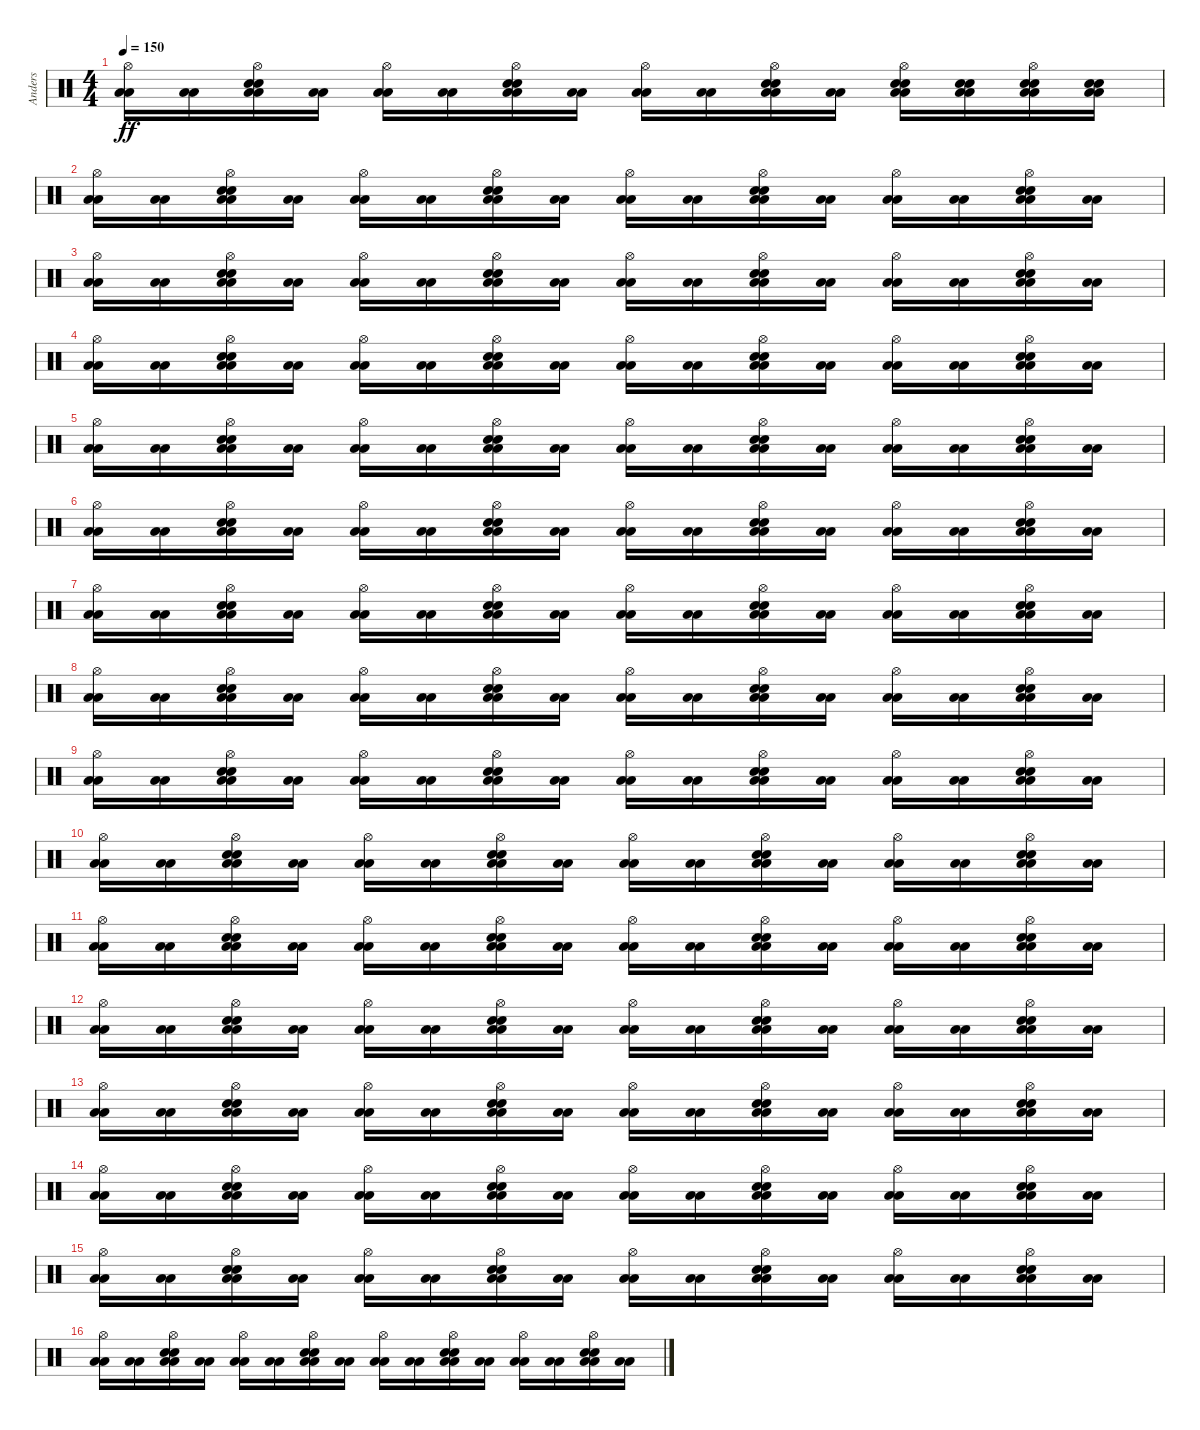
\track ("Anders" "Anders") {instrument percussion}
\staff {score}
\articulation defaults
\ts (4 4)
\tempo 150
\clef neutral
\ks c
("Hi-Hat (open)" "Low Floor Tom (hit)" "Low Floor Tom (hit)").16{dy ff} ("Low Floor Tom (hit)" "Low Floor Tom (hit)").16 ("Hi-Hat (open)" "Electric Snare (hit)" "Electric Snare (hit)" "Low Floor Tom (hit)" "Low Floor Tom (hit)").16 ("Low Floor Tom (hit)" "Low Floor Tom (hit)").16 ("Hi-Hat (open)" "Low Floor Tom (hit)" "Low Floor Tom (hit)").16 ("Low Floor Tom (hit)" "Low Floor Tom (hit)").16 ("Hi-Hat (open)" "Electric Snare (hit)" "Electric Snare (hit)" "Low Floor Tom (hit)" "Low Floor Tom (hit)").16 ("Low Floor Tom (hit)" "Low Floor Tom (hit)").16 ("Hi-Hat (open)" "Low Floor Tom (hit)" "Low Floor Tom (hit)").16 ("Low Floor Tom (hit)" "Low Floor Tom (hit)").16 ("Hi-Hat (open)" "Electric Snare (hit)" "Electric Snare (hit)" "Low Floor Tom (hit)" "Low Floor Tom (hit)").16 ("Low Floor Tom (hit)" "Low Floor Tom (hit)").16 ("Hi-Hat (open)" "Electric Snare (hit)" "Electric Snare (hit)" "Low Floor Tom (hit)" "Low Floor Tom (hit)").16 ("Electric Snare (hit)" "Electric Snare (hit)" "Low Floor Tom (hit)" "Low Floor Tom (hit)").16 ("Hi-Hat (open)" "Electric Snare (hit)" "Electric Snare (hit)" "Low Floor Tom (hit)" "Low Floor Tom (hit)").16 ("Electric Snare (hit)" "Electric Snare (hit)" "Low Floor Tom (hit)" "Low Floor Tom (hit)").16 |
("Hi-Hat (open)" "Low Floor Tom (hit)" "Low Floor Tom (hit)").16 ("Low Floor Tom (hit)" "Low Floor Tom (hit)").16 ("Hi-Hat (open)" "Electric Snare (hit)" "Electric Snare (hit)" "Low Floor Tom (hit)" "Low Floor Tom (hit)").16 ("Low Floor Tom (hit)" "Low Floor Tom (hit)").16 ("Hi-Hat (open)" "Low Floor Tom (hit)" "Low Floor Tom (hit)").16 ("Low Floor Tom (hit)" "Low Floor Tom (hit)").16 ("Hi-Hat (open)" "Electric Snare (hit)" "Electric Snare (hit)" "Low Floor Tom (hit)" "Low Floor Tom (hit)").16 ("Low Floor Tom (hit)" "Low Floor Tom (hit)").16 ("Hi-Hat (open)" "Low Floor Tom (hit)" "Low Floor Tom (hit)").16 ("Low Floor Tom (hit)" "Low Floor Tom (hit)").16 ("Hi-Hat (open)" "Electric Snare (hit)" "Electric Snare (hit)" "Low Floor Tom (hit)" "Low Floor Tom (hit)").16 ("Low Floor Tom (hit)" "Low Floor Tom (hit)").16 ("Hi-Hat (open)" "Low Floor Tom (hit)" "Low Floor Tom (hit)").16 ("Low Floor Tom (hit)" "Low Floor Tom (hit)").16 ("Hi-Hat (open)" "Electric Snare (hit)" "Electric Snare (hit)" "Low Floor Tom (hit)" "Low Floor Tom (hit)").16 ("Low Floor Tom (hit)" "Low Floor Tom (hit)").16 |
("Hi-Hat (open)" "Low Floor Tom (hit)" "Low Floor Tom (hit)").16 ("Low Floor Tom (hit)" "Low Floor Tom (hit)").16 ("Hi-Hat (open)" "Electric Snare (hit)" "Electric Snare (hit)" "Low Floor Tom (hit)" "Low Floor Tom (hit)").16 ("Low Floor Tom (hit)" "Low Floor Tom (hit)").16 ("Hi-Hat (open)" "Low Floor Tom (hit)" "Low Floor Tom (hit)").16 ("Low Floor Tom (hit)" "Low Floor Tom (hit)").16 ("Hi-Hat (open)" "Electric Snare (hit)" "Electric Snare (hit)" "Low Floor Tom (hit)" "Low Floor Tom (hit)").16 ("Low Floor Tom (hit)" "Low Floor Tom (hit)").16 ("Hi-Hat (open)" "Low Floor Tom (hit)" "Low Floor Tom (hit)").16 ("Low Floor Tom (hit)" "Low Floor Tom (hit)").16 ("Hi-Hat (open)" "Electric Snare (hit)" "Electric Snare (hit)" "Low Floor Tom (hit)" "Low Floor Tom (hit)").16 ("Low Floor Tom (hit)" "Low Floor Tom (hit)").16 ("Hi-Hat (open)" "Low Floor Tom (hit)" "Low Floor Tom (hit)").16 ("Low Floor Tom (hit)" "Low Floor Tom (hit)").16 ("Hi-Hat (open)" "Electric Snare (hit)" "Electric Snare (hit)" "Low Floor Tom (hit)" "Low Floor Tom (hit)").16 ("Low Floor Tom (hit)" "Low Floor Tom (hit)").16 |
("Hi-Hat (open)" "Low Floor Tom (hit)" "Low Floor Tom (hit)").16 ("Low Floor Tom (hit)" "Low Floor Tom (hit)").16 ("Hi-Hat (open)" "Electric Snare (hit)" "Electric Snare (hit)" "Low Floor Tom (hit)" "Low Floor Tom (hit)").16 ("Low Floor Tom (hit)" "Low Floor Tom (hit)").16 ("Hi-Hat (open)" "Low Floor Tom (hit)" "Low Floor Tom (hit)").16 ("Low Floor Tom (hit)" "Low Floor Tom (hit)").16 ("Hi-Hat (open)" "Electric Snare (hit)" "Electric Snare (hit)" "Low Floor Tom (hit)" "Low Floor Tom (hit)").16 ("Low Floor Tom (hit)" "Low Floor Tom (hit)").16 ("Hi-Hat (open)" "Low Floor Tom (hit)" "Low Floor Tom (hit)").16 ("Low Floor Tom (hit)" "Low Floor Tom (hit)").16 ("Hi-Hat (open)" "Electric Snare (hit)" "Electric Snare (hit)" "Low Floor Tom (hit)" "Low Floor Tom (hit)").16 ("Low Floor Tom (hit)" "Low Floor Tom (hit)").16 ("Hi-Hat (open)" "Low Floor Tom (hit)" "Low Floor Tom (hit)").16 ("Low Floor Tom (hit)" "Low Floor Tom (hit)").16 ("Hi-Hat (open)" "Electric Snare (hit)" "Electric Snare (hit)" "Low Floor Tom (hit)" "Low Floor Tom (hit)").16 ("Low Floor Tom (hit)" "Low Floor Tom (hit)").16 |
("Hi-Hat (open)" "Low Floor Tom (hit)" "Low Floor Tom (hit)").16 ("Low Floor Tom (hit)" "Low Floor Tom (hit)").16 ("Hi-Hat (open)" "Electric Snare (hit)" "Electric Snare (hit)" "Low Floor Tom (hit)" "Low Floor Tom (hit)").16 ("Low Floor Tom (hit)" "Low Floor Tom (hit)").16 ("Hi-Hat (open)" "Low Floor Tom (hit)" "Low Floor Tom (hit)").16 ("Low Floor Tom (hit)" "Low Floor Tom (hit)").16 ("Hi-Hat (open)" "Electric Snare (hit)" "Electric Snare (hit)" "Low Floor Tom (hit)" "Low Floor Tom (hit)").16 ("Low Floor Tom (hit)" "Low Floor Tom (hit)").16 ("Hi-Hat (open)" "Low Floor Tom (hit)" "Low Floor Tom (hit)").16 ("Low Floor Tom (hit)" "Low Floor Tom (hit)").16 ("Hi-Hat (open)" "Electric Snare (hit)" "Electric Snare (hit)" "Low Floor Tom (hit)" "Low Floor Tom (hit)").16 ("Low Floor Tom (hit)" "Low Floor Tom (hit)").16 ("Hi-Hat (open)" "Low Floor Tom (hit)" "Low Floor Tom (hit)").16 ("Low Floor Tom (hit)" "Low Floor Tom (hit)").16 ("Hi-Hat (open)" "Electric Snare (hit)" "Electric Snare (hit)" "Low Floor Tom (hit)" "Low Floor Tom (hit)").16 ("Low Floor Tom (hit)" "Low Floor Tom (hit)").16 |
("Hi-Hat (open)" "Low Floor Tom (hit)" "Low Floor Tom (hit)").16 ("Low Floor Tom (hit)" "Low Floor Tom (hit)").16 ("Hi-Hat (open)" "Electric Snare (hit)" "Electric Snare (hit)" "Low Floor Tom (hit)" "Low Floor Tom (hit)").16 ("Low Floor Tom (hit)" "Low Floor Tom (hit)").16 ("Hi-Hat (open)" "Low Floor Tom (hit)" "Low Floor Tom (hit)").16 ("Low Floor Tom (hit)" "Low Floor Tom (hit)").16 ("Hi-Hat (open)" "Electric Snare (hit)" "Electric Snare (hit)" "Low Floor Tom (hit)" "Low Floor Tom (hit)").16 ("Low Floor Tom (hit)" "Low Floor Tom (hit)").16 ("Hi-Hat (open)" "Low Floor Tom (hit)" "Low Floor Tom (hit)").16 ("Low Floor Tom (hit)" "Low Floor Tom (hit)").16 ("Hi-Hat (open)" "Electric Snare (hit)" "Electric Snare (hit)" "Low Floor Tom (hit)" "Low Floor Tom (hit)").16 ("Low Floor Tom (hit)" "Low Floor Tom (hit)").16 ("Hi-Hat (open)" "Low Floor Tom (hit)" "Low Floor Tom (hit)").16 ("Low Floor Tom (hit)" "Low Floor Tom (hit)").16 ("Hi-Hat (open)" "Electric Snare (hit)" "Electric Snare (hit)" "Low Floor Tom (hit)" "Low Floor Tom (hit)").16 ("Low Floor Tom (hit)" "Low Floor Tom (hit)").16 |
("Hi-Hat (open)" "Low Floor Tom (hit)" "Low Floor Tom (hit)").16 ("Low Floor Tom (hit)" "Low Floor Tom (hit)").16 ("Hi-Hat (open)" "Electric Snare (hit)" "Electric Snare (hit)" "Low Floor Tom (hit)" "Low Floor Tom (hit)").16 ("Low Floor Tom (hit)" "Low Floor Tom (hit)").16 ("Hi-Hat (open)" "Low Floor Tom (hit)" "Low Floor Tom (hit)").16 ("Low Floor Tom (hit)" "Low Floor Tom (hit)").16 ("Hi-Hat (open)" "Electric Snare (hit)" "Electric Snare (hit)" "Low Floor Tom (hit)" "Low Floor Tom (hit)").16 ("Low Floor Tom (hit)" "Low Floor Tom (hit)").16 ("Hi-Hat (open)" "Low Floor Tom (hit)" "Low Floor Tom (hit)").16 ("Low Floor Tom (hit)" "Low Floor Tom (hit)").16 ("Hi-Hat (open)" "Electric Snare (hit)" "Electric Snare (hit)" "Low Floor Tom (hit)" "Low Floor Tom (hit)").16 ("Low Floor Tom (hit)" "Low Floor Tom (hit)").16 ("Hi-Hat (open)" "Low Floor Tom (hit)" "Low Floor Tom (hit)").16 ("Low Floor Tom (hit)" "Low Floor Tom (hit)").16 ("Hi-Hat (open)" "Electric Snare (hit)" "Electric Snare (hit)" "Low Floor Tom (hit)" "Low Floor Tom (hit)").16 ("Low Floor Tom (hit)" "Low Floor Tom (hit)").16 |
("Hi-Hat (open)" "Low Floor Tom (hit)" "Low Floor Tom (hit)").16 ("Low Floor Tom (hit)" "Low Floor Tom (hit)").16 ("Hi-Hat (open)" "Electric Snare (hit)" "Electric Snare (hit)" "Low Floor Tom (hit)" "Low Floor Tom (hit)").16 ("Low Floor Tom (hit)" "Low Floor Tom (hit)").16 ("Hi-Hat (open)" "Low Floor Tom (hit)" "Low Floor Tom (hit)").16 ("Low Floor Tom (hit)" "Low Floor Tom (hit)").16 ("Hi-Hat (open)" "Electric Snare (hit)" "Electric Snare (hit)" "Low Floor Tom (hit)" "Low Floor Tom (hit)").16 ("Low Floor Tom (hit)" "Low Floor Tom (hit)").16 ("Hi-Hat (open)" "Low Floor Tom (hit)" "Low Floor Tom (hit)").16 ("Low Floor Tom (hit)" "Low Floor Tom (hit)").16 ("Hi-Hat (open)" "Electric Snare (hit)" "Electric Snare (hit)" "Low Floor Tom (hit)" "Low Floor Tom (hit)").16 ("Low Floor Tom (hit)" "Low Floor Tom (hit)").16 ("Hi-Hat (open)" "Low Floor Tom (hit)" "Low Floor Tom (hit)").16 ("Low Floor Tom (hit)" "Low Floor Tom (hit)").16 ("Hi-Hat (open)" "Electric Snare (hit)" "Electric Snare (hit)" "Low Floor Tom (hit)" "Low Floor Tom (hit)").16 ("Low Floor Tom (hit)" "Low Floor Tom (hit)").16 |
("Hi-Hat (open)" "Low Floor Tom (hit)" "Low Floor Tom (hit)").16 ("Low Floor Tom (hit)" "Low Floor Tom (hit)").16 ("Hi-Hat (open)" "Electric Snare (hit)" "Electric Snare (hit)" "Low Floor Tom (hit)" "Low Floor Tom (hit)").16 ("Low Floor Tom (hit)" "Low Floor Tom (hit)").16 ("Hi-Hat (open)" "Low Floor Tom (hit)" "Low Floor Tom (hit)").16 ("Low Floor Tom (hit)" "Low Floor Tom (hit)").16 ("Hi-Hat (open)" "Electric Snare (hit)" "Electric Snare (hit)" "Low Floor Tom (hit)" "Low Floor Tom (hit)").16 ("Low Floor Tom (hit)" "Low Floor Tom (hit)").16 ("Hi-Hat (open)" "Low Floor Tom (hit)" "Low Floor Tom (hit)").16 ("Low Floor Tom (hit)" "Low Floor Tom (hit)").16 ("Hi-Hat (open)" "Electric Snare (hit)" "Electric Snare (hit)" "Low Floor Tom (hit)" "Low Floor Tom (hit)").16 ("Low Floor Tom (hit)" "Low Floor Tom (hit)").16 ("Hi-Hat (open)" "Low Floor Tom (hit)" "Low Floor Tom (hit)").16 ("Low Floor Tom (hit)" "Low Floor Tom (hit)").16 ("Hi-Hat (open)" "Electric Snare (hit)" "Electric Snare (hit)" "Low Floor Tom (hit)" "Low Floor Tom (hit)").16 ("Low Floor Tom (hit)" "Low Floor Tom (hit)").16 |
("Hi-Hat (open)" "Low Floor Tom (hit)" "Low Floor Tom (hit)").16 ("Low Floor Tom (hit)" "Low Floor Tom (hit)").16 ("Hi-Hat (open)" "Electric Snare (hit)" "Electric Snare (hit)" "Low Floor Tom (hit)" "Low Floor Tom (hit)").16 ("Low Floor Tom (hit)" "Low Floor Tom (hit)").16 ("Hi-Hat (open)" "Low Floor Tom (hit)" "Low Floor Tom (hit)").16 ("Low Floor Tom (hit)" "Low Floor Tom (hit)").16 ("Hi-Hat (open)" "Electric Snare (hit)" "Electric Snare (hit)" "Low Floor Tom (hit)" "Low Floor Tom (hit)").16 ("Low Floor Tom (hit)" "Low Floor Tom (hit)").16 ("Hi-Hat (open)" "Low Floor Tom (hit)" "Low Floor Tom (hit)").16 ("Low Floor Tom (hit)" "Low Floor Tom (hit)").16 ("Hi-Hat (open)" "Electric Snare (hit)" "Electric Snare (hit)" "Low Floor Tom (hit)" "Low Floor Tom (hit)").16 ("Low Floor Tom (hit)" "Low Floor Tom (hit)").16 ("Hi-Hat (open)" "Low Floor Tom (hit)" "Low Floor Tom (hit)").16 ("Low Floor Tom (hit)" "Low Floor Tom (hit)").16 ("Hi-Hat (open)" "Electric Snare (hit)" "Electric Snare (hit)" "Low Floor Tom (hit)" "Low Floor Tom (hit)").16 ("Low Floor Tom (hit)" "Low Floor Tom (hit)").16 |
("Hi-Hat (open)" "Low Floor Tom (hit)" "Low Floor Tom (hit)").16 ("Low Floor Tom (hit)" "Low Floor Tom (hit)").16 ("Hi-Hat (open)" "Electric Snare (hit)" "Electric Snare (hit)" "Low Floor Tom (hit)" "Low Floor Tom (hit)").16 ("Low Floor Tom (hit)" "Low Floor Tom (hit)").16 ("Hi-Hat (open)" "Low Floor Tom (hit)" "Low Floor Tom (hit)").16 ("Low Floor Tom (hit)" "Low Floor Tom (hit)").16 ("Hi-Hat (open)" "Electric Snare (hit)" "Electric Snare (hit)" "Low Floor Tom (hit)" "Low Floor Tom (hit)").16 ("Low Floor Tom (hit)" "Low Floor Tom (hit)").16 ("Hi-Hat (open)" "Low Floor Tom (hit)" "Low Floor Tom (hit)").16 ("Low Floor Tom (hit)" "Low Floor Tom (hit)").16 ("Hi-Hat (open)" "Electric Snare (hit)" "Electric Snare (hit)" "Low Floor Tom (hit)" "Low Floor Tom (hit)").16 ("Low Floor Tom (hit)" "Low Floor Tom (hit)").16 ("Hi-Hat (open)" "Low Floor Tom (hit)" "Low Floor Tom (hit)").16 ("Low Floor Tom (hit)" "Low Floor Tom (hit)").16 ("Hi-Hat (open)" "Electric Snare (hit)" "Electric Snare (hit)" "Low Floor Tom (hit)" "Low Floor Tom (hit)").16 ("Low Floor Tom (hit)" "Low Floor Tom (hit)").16 |
("Hi-Hat (open)" "Low Floor Tom (hit)" "Low Floor Tom (hit)").16 ("Low Floor Tom (hit)" "Low Floor Tom (hit)").16 ("Hi-Hat (open)" "Electric Snare (hit)" "Electric Snare (hit)" "Low Floor Tom (hit)" "Low Floor Tom (hit)").16 ("Low Floor Tom (hit)" "Low Floor Tom (hit)").16 ("Hi-Hat (open)" "Low Floor Tom (hit)" "Low Floor Tom (hit)").16 ("Low Floor Tom (hit)" "Low Floor Tom (hit)").16 ("Hi-Hat (open)" "Electric Snare (hit)" "Electric Snare (hit)" "Low Floor Tom (hit)" "Low Floor Tom (hit)").16 ("Low Floor Tom (hit)" "Low Floor Tom (hit)").16 ("Hi-Hat (open)" "Low Floor Tom (hit)" "Low Floor Tom (hit)").16 ("Low Floor Tom (hit)" "Low Floor Tom (hit)").16 ("Hi-Hat (open)" "Electric Snare (hit)" "Electric Snare (hit)" "Low Floor Tom (hit)" "Low Floor Tom (hit)").16 ("Low Floor Tom (hit)" "Low Floor Tom (hit)").16 ("Hi-Hat (open)" "Low Floor Tom (hit)" "Low Floor Tom (hit)").16 ("Low Floor Tom (hit)" "Low Floor Tom (hit)").16 ("Hi-Hat (open)" "Electric Snare (hit)" "Electric Snare (hit)" "Low Floor Tom (hit)" "Low Floor Tom (hit)").16 ("Low Floor Tom (hit)" "Low Floor Tom (hit)").16 |
("Hi-Hat (open)" "Low Floor Tom (hit)" "Low Floor Tom (hit)").16 ("Low Floor Tom (hit)" "Low Floor Tom (hit)").16 ("Hi-Hat (open)" "Electric Snare (hit)" "Electric Snare (hit)" "Low Floor Tom (hit)" "Low Floor Tom (hit)").16 ("Low Floor Tom (hit)" "Low Floor Tom (hit)").16 ("Hi-Hat (open)" "Low Floor Tom (hit)" "Low Floor Tom (hit)").16 ("Low Floor Tom (hit)" "Low Floor Tom (hit)").16 ("Hi-Hat (open)" "Electric Snare (hit)" "Electric Snare (hit)" "Low Floor Tom (hit)" "Low Floor Tom (hit)").16 ("Low Floor Tom (hit)" "Low Floor Tom (hit)").16 ("Hi-Hat (open)" "Low Floor Tom (hit)" "Low Floor Tom (hit)").16 ("Low Floor Tom (hit)" "Low Floor Tom (hit)").16 ("Hi-Hat (open)" "Electric Snare (hit)" "Electric Snare (hit)" "Low Floor Tom (hit)" "Low Floor Tom (hit)").16 ("Low Floor Tom (hit)" "Low Floor Tom (hit)").16 ("Hi-Hat (open)" "Low Floor Tom (hit)" "Low Floor Tom (hit)").16 ("Low Floor Tom (hit)" "Low Floor Tom (hit)").16 ("Hi-Hat (open)" "Electric Snare (hit)" "Electric Snare (hit)" "Low Floor Tom (hit)" "Low Floor Tom (hit)").16 ("Low Floor Tom (hit)" "Low Floor Tom (hit)").16 |
("Hi-Hat (open)" "Low Floor Tom (hit)" "Low Floor Tom (hit)").16 ("Low Floor Tom (hit)" "Low Floor Tom (hit)").16 ("Hi-Hat (open)" "Electric Snare (hit)" "Electric Snare (hit)" "Low Floor Tom (hit)" "Low Floor Tom (hit)").16 ("Low Floor Tom (hit)" "Low Floor Tom (hit)").16 ("Hi-Hat (open)" "Low Floor Tom (hit)" "Low Floor Tom (hit)").16 ("Low Floor Tom (hit)" "Low Floor Tom (hit)").16 ("Hi-Hat (open)" "Electric Snare (hit)" "Electric Snare (hit)" "Low Floor Tom (hit)" "Low Floor Tom (hit)").16 ("Low Floor Tom (hit)" "Low Floor Tom (hit)").16 ("Hi-Hat (open)" "Low Floor Tom (hit)" "Low Floor Tom (hit)").16 ("Low Floor Tom (hit)" "Low Floor Tom (hit)").16 ("Hi-Hat (open)" "Electric Snare (hit)" "Electric Snare (hit)" "Low Floor Tom (hit)" "Low Floor Tom (hit)").16 ("Low Floor Tom (hit)" "Low Floor Tom (hit)").16 ("Hi-Hat (open)" "Low Floor Tom (hit)" "Low Floor Tom (hit)").16 ("Low Floor Tom (hit)" "Low Floor Tom (hit)").16 ("Hi-Hat (open)" "Electric Snare (hit)" "Electric Snare (hit)" "Low Floor Tom (hit)" "Low Floor Tom (hit)").16 ("Low Floor Tom (hit)" "Low Floor Tom (hit)").16 |
("Hi-Hat (open)" "Low Floor Tom (hit)" "Low Floor Tom (hit)").16 ("Low Floor Tom (hit)" "Low Floor Tom (hit)").16 ("Hi-Hat (open)" "Electric Snare (hit)" "Electric Snare (hit)" "Low Floor Tom (hit)" "Low Floor Tom (hit)").16 ("Low Floor Tom (hit)" "Low Floor Tom (hit)").16 ("Hi-Hat (open)" "Low Floor Tom (hit)" "Low Floor Tom (hit)").16 ("Low Floor Tom (hit)" "Low Floor Tom (hit)").16 ("Hi-Hat (open)" "Electric Snare (hit)" "Electric Snare (hit)" "Low Floor Tom (hit)" "Low Floor Tom (hit)").16 ("Low Floor Tom (hit)" "Low Floor Tom (hit)").16 ("Hi-Hat (open)" "Low Floor Tom (hit)" "Low Floor Tom (hit)").16 ("Low Floor Tom (hit)" "Low Floor Tom (hit)").16 ("Hi-Hat (open)" "Electric Snare (hit)" "Electric Snare (hit)" "Low Floor Tom (hit)" "Low Floor Tom (hit)").16 ("Low Floor Tom (hit)" "Low Floor Tom (hit)").16 ("Hi-Hat (open)" "Low Floor Tom (hit)" "Low Floor Tom (hit)").16 ("Low Floor Tom (hit)" "Low Floor Tom (hit)").16 ("Hi-Hat (open)" "Electric Snare (hit)" "Electric Snare (hit)" "Low Floor Tom (hit)" "Low Floor Tom (hit)").16 ("Low Floor Tom (hit)" "Low Floor Tom (hit)").16 |
("Hi-Hat (open)" "Low Floor Tom (hit)" "Low Floor Tom (hit)").16 ("Low Floor Tom (hit)" "Low Floor Tom (hit)").16 ("Hi-Hat (open)" "Electric Snare (hit)" "Electric Snare (hit)" "Low Floor Tom (hit)" "Low Floor Tom (hit)").16 ("Low Floor Tom (hit)" "Low Floor Tom (hit)").16 ("Hi-Hat (open)" "Low Floor Tom (hit)" "Low Floor Tom (hit)").16 ("Low Floor Tom (hit)" "Low Floor Tom (hit)").16 ("Hi-Hat (open)" "Electric Snare (hit)" "Electric Snare (hit)" "Low Floor Tom (hit)" "Low Floor Tom (hit)").16 ("Low Floor Tom (hit)" "Low Floor Tom (hit)").16 ("Hi-Hat (open)" "Low Floor Tom (hit)" "Low Floor Tom (hit)").16 ("Low Floor Tom (hit)" "Low Floor Tom (hit)").16 ("Hi-Hat (open)" "Electric Snare (hit)" "Electric Snare (hit)" "Low Floor Tom (hit)" "Low Floor Tom (hit)").16 ("Low Floor Tom (hit)" "Low Floor Tom (hit)").16 ("Hi-Hat (open)" "Low Floor Tom (hit)" "Low Floor Tom (hit)").16 ("Low Floor Tom (hit)" "Low Floor Tom (hit)").16 ("Hi-Hat (open)" "Electric Snare (hit)" "Electric Snare (hit)" "Low Floor Tom (hit)" "Low Floor Tom (hit)").16 ("Low Floor Tom (hit)" "Low Floor Tom (hit)").16
